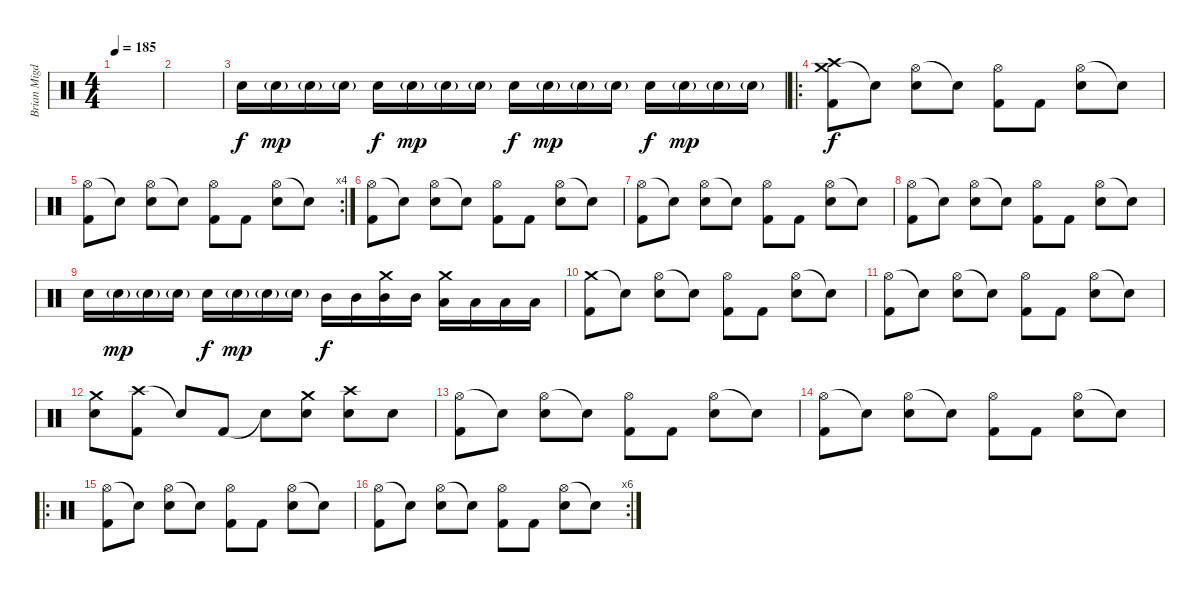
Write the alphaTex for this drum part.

\track ("Brian Migdol- Drums" "Brian Migd") {instrument percussion}
\staff {score}
\articulation defaults
\ts (4 4)
\tempo 185
\clef neutral
\ks c
|
|
"Snare (hit) 2".16 "Snare (hit) 2"{g}.16{dy mp} "Snare (hit) 2"{g}.16 "Snare (hit) 2"{g}.16 "Snare (hit) 2".16{dy f} "Snare (hit) 2"{g}.16{dy mp} "Snare (hit) 2"{g}.16 "Snare (hit) 2"{g}.16 "Snare (hit) 2".16{dy f} "Snare (hit) 2"{g}.16{dy mp} "Snare (hit) 2"{g}.16 "Snare (hit) 2"{g}.16 "Snare (hit) 2".16{dy f} "Snare (hit) 2"{g}.16{dy mp} "Snare (hit) 2"{g}.16 "Snare (hit) 2"{g}.16 |
\ro
("Crash medium (hit)" "Crash high (hit)" "Kick (hit) 2").8{dy f} "Snare (hit)"{t}.8 ("Hi-Hat (open)" "Snare (hit) 2").8 "Snare (hit)"{t}.8 ("Hi-Hat (open)" "Kick (hit) 2").8 "Kick (hit) 2".8 ("Hi-Hat (open)" "Snare (hit) 2").8 "Snare (hit)"{t}.8 |
\rc 4
("Hi-Hat (open)" "Kick (hit) 2").8 "Snare (hit)"{t}.8 ("Hi-Hat (open)" "Snare (hit) 2").8 "Snare (hit)"{t}.8 ("Hi-Hat (open)" "Kick (hit) 2").8 "Kick (hit) 2".8 ("Hi-Hat (open)" "Snare (hit) 2").8 "Snare (hit)"{t}.8 |
("Hi-Hat (open)" "Kick (hit) 2").8 "Snare (hit)"{t}.8 ("Hi-Hat (open)" "Snare (hit) 2").8 "Snare (hit)"{t}.8 ("Hi-Hat (open)" "Kick (hit) 2").8 "Kick (hit) 2".8 ("Hi-Hat (open)" "Snare (hit) 2").8 "Snare (hit)"{t}.8 |
("Hi-Hat (open)" "Kick (hit) 2").8 "Snare (hit)"{t}.8 ("Hi-Hat (open)" "Snare (hit) 2").8 "Snare (hit)"{t}.8 ("Hi-Hat (open)" "Kick (hit) 2").8 "Kick (hit) 2".8 ("Hi-Hat (open)" "Snare (hit) 2").8 "Snare (hit)"{t}.8 |
("Hi-Hat (open)" "Kick (hit) 2").8 "Snare (hit)"{t}.8 ("Hi-Hat (open)" "Snare (hit) 2").8 "Snare (hit)"{t}.8 ("Hi-Hat (open)" "Kick (hit) 2").8 "Kick (hit) 2".8 ("Hi-Hat (open)" "Snare (hit) 2").8 "Snare (hit)"{t}.8 |
"Snare (hit) 2".16 "Snare (hit) 2"{g}.16{dy mp} "Snare (hit) 2"{g}.16 "Snare (hit) 2"{g}.16 "Snare (hit) 2".16{dy f} "Snare (hit) 2"{g}.16{dy mp} "Snare (hit) 2"{g}.16 "Snare (hit) 2"{g}.16 "Mid Tom (hit)".16{dy f} "Mid Tom (hit)".16 ("Crash medium (hit)" "Mid Tom (hit)").16 "Mid Tom (hit)".16 ("Crash medium (hit)" "Low Tom (hit)").16 "Low Tom (hit)".16 "Low Tom (hit)".16 "Low Tom (hit)".16 |
("Crash medium (hit)" "Kick (hit) 2").8 "Snare (hit)"{t}.8 ("Hi-Hat (open)" "Snare (hit) 2").8 "Snare (hit)"{t}.8 ("Hi-Hat (open)" "Kick (hit) 2").8 "Kick (hit) 2".8 ("Hi-Hat (open)" "Snare (hit) 2").8 "Snare (hit)"{t}.8 |
("Hi-Hat (open)" "Kick (hit) 2").8 "Snare (hit)"{t}.8 ("Hi-Hat (open)" "Snare (hit) 2").8 "Snare (hit)"{t}.8 ("Hi-Hat (open)" "Kick (hit) 2").8 "Kick (hit) 2".8 ("Hi-Hat (open)" "Snare (hit) 2").8 "Snare (hit)"{t}.8 |
("Crash medium (hit)" "Snare (hit) 2").8 ("Crash high (hit)" "Kick (hit) 2").8 "Snare (hit)"{t}.8 "Kick (hit) 2".8 "Snare (hit)"{t}.8 ("Crash medium (hit)" "Snare (hit) 2").8 ("Crash high (hit)" "Snare (hit) 2").8 "Snare (hit) 2".8 |
("Hi-Hat (open)" "Kick (hit) 2").8 "Snare (hit)"{t}.8 ("Hi-Hat (open)" "Snare (hit) 2").8 "Snare (hit)"{t}.8 ("Hi-Hat (open)" "Kick (hit) 2").8 "Kick (hit) 2".8 ("Hi-Hat (open)" "Snare (hit) 2").8 "Snare (hit)"{t}.8 |
("Hi-Hat (open)" "Kick (hit) 2").8 "Snare (hit)"{t}.8 ("Hi-Hat (open)" "Snare (hit) 2").8 "Snare (hit)"{t}.8 ("Hi-Hat (open)" "Kick (hit) 2").8 "Kick (hit) 2".8 ("Hi-Hat (open)" "Snare (hit) 2").8 "Snare (hit)"{t}.8 |
\ro
("Hi-Hat (open)" "Kick (hit) 2").8 "Snare (hit)"{t}.8 ("Hi-Hat (open)" "Snare (hit) 2").8 "Snare (hit)"{t}.8 ("Hi-Hat (open)" "Kick (hit) 2").8 "Kick (hit) 2".8 ("Hi-Hat (open)" "Snare (hit) 2").8 "Snare (hit)"{t}.8 |
\rc 6
("Hi-Hat (open)" "Kick (hit) 2").8 "Snare (hit)"{t}.8 ("Hi-Hat (open)" "Snare (hit) 2").8 "Snare (hit)"{t}.8 ("Hi-Hat (open)" "Kick (hit) 2").8 "Kick (hit) 2".8 ("Hi-Hat (open)" "Snare (hit) 2").8 "Snare (hit)"{t}.8
